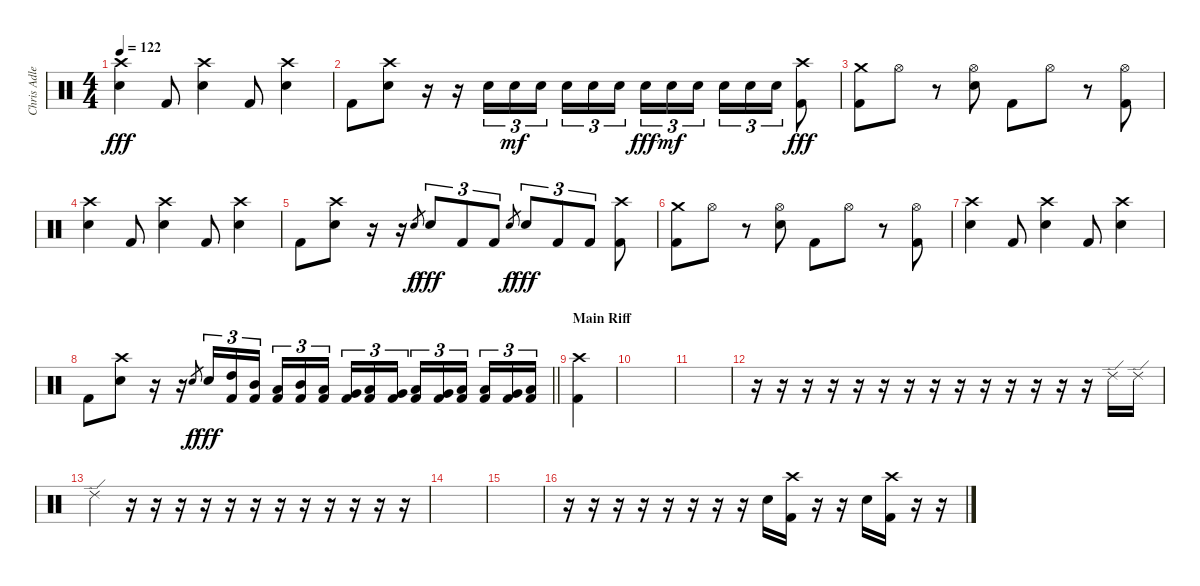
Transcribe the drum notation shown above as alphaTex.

\track ("Chris Adler" "Chris Adle") {instrument percussion}
\staff {score}
\articulation defaults
\ts (4 4)
\tempo 122
\clef neutral
\ks c
("Crash high (hit)" "Snare (hit) 2").4{dy fff} "Kick (hit) 2".8 ("Crash high (hit)" "Snare (hit) 2").4 "Kick (hit) 2".8 ("Crash high (hit)" "Snare (hit) 2").4 |
"Kick (hit) 2".8 ("Crash high (hit)" "Snare (hit) 2").8 r.16 r.16 "Snare (hit) 2".16{tu (3 2)} "Snare (hit) 2".16{tu (3 2) dy mf} "Snare (hit) 2".16{tu (3 2)} "Snare (hit) 2".16{tu (3 2)} "Snare (hit) 2".16{tu (3 2)} "Snare (hit) 2".16{tu (3 2) beam splitsecondary} "Snare (hit) 2".16{tu (3 2) dy fff} "Snare (hit) 2".16{tu (3 2) dy mf} "Snare (hit) 2".16{tu (3 2)} "Snare (hit) 2".16{tu (3 2)} "Snare (hit) 2".16{tu (3 2)} "Snare (hit) 2".16{tu (3 2)} ("Crash high (hit)" "Kick (hit) 2").8{dy fff} |
("Crash medium (hit)" "Kick (hit) 2").8 "Hi-Hat (open)".8 r.8 ("Hi-Hat (open)" "Snare (hit) 2").8 "Kick (hit) 2".8 "Hi-Hat (open)".8 r.8 ("Hi-Hat (open)" "Kick (hit) 2").8 |
("Crash high (hit)" "Snare (hit) 2").4 "Kick (hit) 2".8 ("Crash high (hit)" "Snare (hit) 2").4 "Kick (hit) 2".8 ("Crash high (hit)" "Snare (hit) 2").4 |
"Kick (hit) 2".8 ("Crash high (hit)" "Snare (hit) 2").8 r.16 r.16 "Snare (hit) 2".8{gr dy f} "Snare (hit) 2".8{tu (3 2) dy fff} "Kick (hit) 2".8{tu (3 2)} "Kick (hit) 2".8{tu (3 2)} "Snare (hit) 2".8{gr dy f} "Snare (hit) 2".8{tu (3 2) dy fff} "Kick (hit) 2".8{tu (3 2)} "Kick (hit) 2".8{tu (3 2)} ("Crash high (hit)" "Kick (hit) 2").8 |
("Crash medium (hit)" "Kick (hit) 2").8 "Hi-Hat (open)".8 r.8 ("Hi-Hat (open)" "Snare (hit) 2").8 "Kick (hit) 2".8 "Hi-Hat (open)".8 r.8 ("Hi-Hat (open)" "Kick (hit) 2").8 |
("Crash high (hit)" "Snare (hit) 2").4 "Kick (hit) 2".8 ("Crash high (hit)" "Snare (hit) 2").4 "Kick (hit) 2".8 ("Crash high (hit)" "Snare (hit) 2").4 |
\barLineRight lightlight "Kick (hit) 2".8
("Crash high (hit)" "Snare (hit) 2").8 r.16 r.16 "Snare (hit) 2".8{gr dy f} "Snare (hit) 2".16{tu (3 2) dy fff} ("High Tom (hit)" "Kick (hit) 2").16{tu (3 2)} ("Mid Tom (hit)" "Kick (hit) 2").16{tu (3 2)} ("Low Tom (hit)" "Kick (hit) 2").16{tu (3 2)} ("Mid Tom (hit)" "Kick (hit) 2").16{tu (3 2)} ("Low Tom (hit)" "Kick (hit) 2").16{tu (3 2) beam splitsecondary} ("Very Low Tom (hit)" "Kick (hit) 2").16{tu (3 2)} ("Low Tom (hit)" "Kick (hit) 2").16{tu (3 2)} ("Very Low Tom (hit)" "Kick (hit) 2").16{tu (3 2)} ("Low Floor Tom (hit)" "Kick (hit) 2").16{tu (3 2)} ("Very Low Tom (hit)" "Kick (hit) 2").16{tu (3 2)} ("Low Floor Tom (hit)" "Kick (hit) 2").16{tu (3 2) beam splitsecondary} ("Low Floor Tom (hit)" "Kick (hit) 2").16{tu (3 2)} ("Very Low Tom (hit)" "Kick (hit) 2").16{tu (3 2)} ("Low Floor Tom (hit)" "Kick (hit) 2").16{tu (3 2)} |
\section ("" "Main Riff")
("Crash high (hit)" "Kick (hit) 2").4 |
|
|
r.16 r.16 r.16 r.16 r.16 r.16 r.16 r.16 r.16 r.16 r.16 r.16 r.16 r.16 "Ride (edge) 2".16 "Ride (edge) 2".16 |
"Ride (edge) 2".4 r.16 r.16 r.16 r.16 r.16 r.16 r.16 r.16 r.16 r.16 r.16 r.16 |
|
|
r.16 r.16 r.16 r.16 r.16 r.16 r.16 r.16 "Snare (hit) 2".16 ("Crash high (hit)" "Kick (hit) 2").16 r.16 r.16 "Snare (hit) 2".16 ("Crash high (hit)" "Kick (hit) 2").16 r.16 r.16
